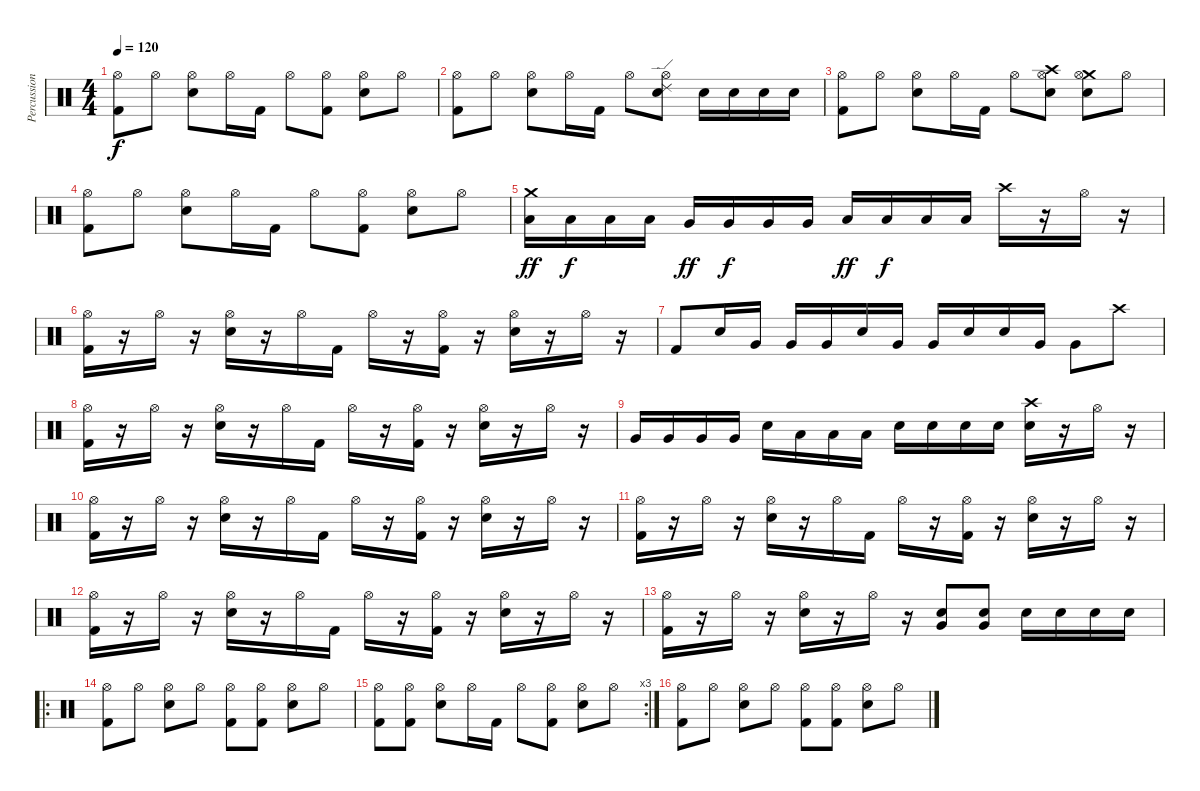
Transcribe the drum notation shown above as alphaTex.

\track ("Percussion" "Percussion") {instrument percussion}
\staff {score}
\articulation defaults
\ts (4 4)
\tempo 120
\clef neutral
\ks c
("Kick (hit) 2" "Hi-Hat (open)").8{dy f} "Hi-Hat (open)".8 ("Snare (hit) 2" "Hi-Hat (open)").8 "Hi-Hat (open)".16 "Kick (hit) 2".16 "Hi-Hat (open)".8 ("Kick (hit) 2" "Hi-Hat (open)").8 ("Snare (hit) 2" "Hi-Hat (open)").8 "Hi-Hat (open)".8 |
("Kick (hit) 2" "Hi-Hat (open)").8 "Hi-Hat (open)".8 ("Snare (hit) 2" "Hi-Hat (open)").8 "Hi-Hat (open)".16 "Kick (hit) 2".16 "Hi-Hat (open)".8 ("Ride (edge) 2" "Snare (hit) 2" "Hi-Hat (open)").8 "Snare (hit) 2".16 "Snare (hit) 2".16 "Snare (hit) 2".16 "Snare (hit) 2".16 |
("Kick (hit) 2" "Hi-Hat (open)").8 "Hi-Hat (open)".8 ("Snare (hit) 2" "Hi-Hat (open)").8 "Hi-Hat (open)".16 "Kick (hit) 2".16 "Hi-Hat (open)".8 ("Crash high (hit)" "Snare (hit) 2" "Hi-Hat (open)").8 ("Crash medium (hit)" "Snare (hit) 2" "Hi-Hat (open)").8 "Hi-Hat (open)".8 |
("Kick (hit) 2" "Hi-Hat (open)").8 "Hi-Hat (open)".8 ("Snare (hit) 2" "Hi-Hat (open)").8 "Hi-Hat (open)".16 "Kick (hit) 2".16 "Hi-Hat (open)".8 ("Kick (hit) 2" "Hi-Hat (open)").8 ("Snare (hit) 2" "Hi-Hat (open)").8 "Hi-Hat (open)".8 |
("Crash medium (hit)" "Low Tom (hit)").16{dy ff} "Low Tom (hit)".16{dy f} "Low Tom (hit)".16 "Low Tom (hit)".16 "Very Low Tom (hit)".16{dy ff} "Very Low Tom (hit)".16{dy f} "Very Low Tom (hit)".16 "Very Low Tom (hit)".16 "Low Floor Tom (hit)".16{dy ff} "Low Floor Tom (hit)".16{dy f} "Low Floor Tom (hit)".16 "Low Floor Tom (hit)".16 "Crash high (hit)".16 r.16 "Hi-Hat (open)".16 r.16 |
("Kick (hit) 2" "Hi-Hat (open)").16 r.16 "Hi-Hat (open)".16 r.16 ("Snare (hit) 2" "Hi-Hat (open)").16 r.16 "Hi-Hat (open)".16 "Kick (hit) 2".16 "Hi-Hat (open)".16 r.16 ("Kick (hit) 2" "Hi-Hat (open)").16 r.16 ("Snare (hit) 2" "Hi-Hat (open)").16 r.16 "Hi-Hat (open)".16 r.16 |
"Kick (hit) 2".8 "Snare (hit) 2".16 "Very Low Tom (hit)".16 "Very Low Tom (hit)".16 "Very Low Tom (hit)".16 "Snare (hit) 2".16 "Very Low Tom (hit)".16 "Very Low Tom (hit)".16 "Snare (hit) 2".16 "Snare (hit) 2".16 "Very Low Tom (hit)".16 "Very Low Tom (hit)".8 "Crash high (hit)".8 |
("Kick (hit) 2" "Hi-Hat (open)").16 r.16 "Hi-Hat (open)".16 r.16 ("Snare (hit) 2" "Hi-Hat (open)").16 r.16 "Hi-Hat (open)".16 "Kick (hit) 2".16 "Hi-Hat (open)".16 r.16 ("Kick (hit) 2" "Hi-Hat (open)").16 r.16 ("Snare (hit) 2" "Hi-Hat (open)").16 r.16 "Hi-Hat (open)".16 r.16 |
"Very Low Tom (hit)".16 "Very Low Tom (hit)".16 "Very Low Tom (hit)".16 "Very Low Tom (hit)".16 "Snare (hit) 2".16 "Low Floor Tom (hit)".16 "Low Floor Tom (hit)".16 "Low Floor Tom (hit)".16 "Snare (hit) 2".16 "Snare (hit) 2".16 "Snare (hit) 2".16 "Snare (hit) 2".16 ("Crash high (hit)" "Snare (hit) 2").16 r.16 "Hi-Hat (open)".16 r.16 |
("Kick (hit) 2" "Hi-Hat (open)").16 r.16 "Hi-Hat (open)".16 r.16 ("Snare (hit) 2" "Hi-Hat (open)").16 r.16 "Hi-Hat (open)".16 "Kick (hit) 2".16 "Hi-Hat (open)".16 r.16 ("Kick (hit) 2" "Hi-Hat (open)").16 r.16 ("Snare (hit) 2" "Hi-Hat (open)").16 r.16 "Hi-Hat (open)".16 r.16 |
("Kick (hit) 2" "Hi-Hat (open)").16 r.16 "Hi-Hat (open)".16 r.16 ("Snare (hit) 2" "Hi-Hat (open)").16 r.16 "Hi-Hat (open)".16 "Kick (hit) 2".16 "Hi-Hat (open)".16 r.16 ("Kick (hit) 2" "Hi-Hat (open)").16 r.16 ("Snare (hit) 2" "Hi-Hat (open)").16 r.16 "Hi-Hat (open)".16 r.16 |
("Kick (hit) 2" "Hi-Hat (open)").16 r.16 "Hi-Hat (open)".16 r.16 ("Snare (hit) 2" "Hi-Hat (open)").16 r.16 "Hi-Hat (open)".16 "Kick (hit) 2".16 "Hi-Hat (open)".16 r.16 ("Kick (hit) 2" "Hi-Hat (open)").16 r.16 ("Snare (hit) 2" "Hi-Hat (open)").16 r.16 "Hi-Hat (open)".16 r.16 |
("Kick (hit) 2" "Hi-Hat (open)").16 r.16 "Hi-Hat (open)".16 r.16 ("Snare (hit) 2" "Hi-Hat (open)").16 r.16 "Hi-Hat (open)".16 r.16 ("Snare (hit) 2" "Very Low Tom (hit)").8 ("Snare (hit) 2" "Very Low Tom (hit)").8 "Snare (hit) 2".16 "Snare (hit) 2".16 "Snare (hit) 2".16 "Snare (hit) 2".16 |
\ro
("Kick (hit) 2" "Hi-Hat (open)").8 "Hi-Hat (open)".8 ("Snare (hit) 2" "Hi-Hat (open)").8 "Hi-Hat (open)".8 ("Kick (hit) 2" "Hi-Hat (open)").8 ("Kick (hit) 2" "Hi-Hat (open)").8 ("Snare (hit) 2" "Hi-Hat (open)").8 "Hi-Hat (open)".8 |
\rc 3
("Kick (hit) 2" "Hi-Hat (open)").8 ("Kick (hit) 2" "Hi-Hat (open)").8 ("Snare (hit) 2" "Hi-Hat (open)").8 "Hi-Hat (open)".16 "Kick (hit) 2".16 "Hi-Hat (open)".8 ("Kick (hit) 2" "Hi-Hat (open)").8 ("Snare (hit) 2" "Hi-Hat (open)").8 "Hi-Hat (open)".8 |
("Kick (hit) 2" "Hi-Hat (open)").8 "Hi-Hat (open)".8 ("Snare (hit) 2" "Hi-Hat (open)").8 "Hi-Hat (open)".8 ("Kick (hit) 2" "Hi-Hat (open)").8 ("Kick (hit) 2" "Hi-Hat (open)").8 ("Snare (hit) 2" "Hi-Hat (open)").8 "Hi-Hat (open)".8
